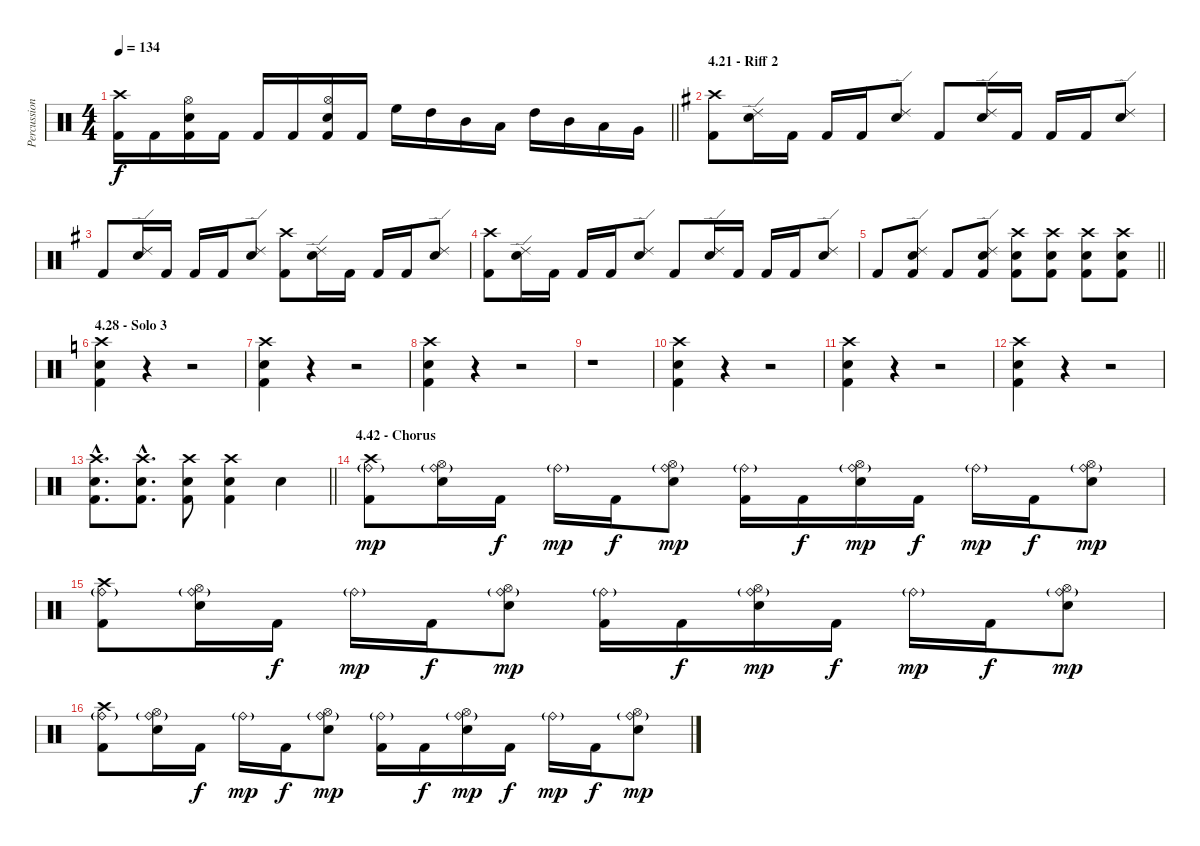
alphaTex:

\track ("Percussion" "Percussion") {instrument percussion}
\staff {score}
\articulation defaults
\ts (4 4)
\tempo 134
\clef neutral
\barLineRight lightlight
\ks aminor
("Crash high (hit)" "Kick (hit) 2").16{dy f} "Kick (hit) 2".16 ("Hi-Hat (open)" "Electric Snare (hit)" "Kick (hit) 2").16 "Kick (hit) 2".16 "Kick (hit) 2".16 "Kick (hit) 2".16 ("Hi-Hat (open)" "Electric Snare (hit)" "Kick (hit) 2").16 "Kick (hit) 2".16 "High Floor Tom (hit)".16 "High Tom (hit)".16 "Mid Tom (hit)".16 "Low Tom (hit)".16 "High Tom (hit)".16 "Mid Tom (hit)".16 "Low Tom (hit)".16 "Very Low Tom (hit)".16 |
\section ("" "4.21 - Riff 2")
\ks eminor
("Crash high (hit)" "Kick (hit) 2").8 ("Ride (edge) 2" "Electric Snare (hit)").16 "Kick (hit) 2".16 "Kick (hit) 2".16 "Kick (hit) 2".16 ("Ride (edge) 2" "Electric Snare (hit)").8 "Kick (hit) 2".8 ("Ride (edge) 2" "Electric Snare (hit)").16 "Kick (hit) 2".16 "Kick (hit) 2".16 "Kick (hit) 2".16 ("Ride (edge) 2" "Electric Snare (hit)").8 |
"Kick (hit) 2".8 ("Ride (edge) 2" "Electric Snare (hit)").16 "Kick (hit) 2".16 "Kick (hit) 2".16 "Kick (hit) 2".16 ("Ride (edge) 2" "Electric Snare (hit)").8 ("Crash high (hit)" "Kick (hit) 2").8 ("Ride (edge) 2" "Electric Snare (hit)").16 "Kick (hit) 2".16 "Kick (hit) 2".16 "Kick (hit) 2".16 ("Ride (edge) 2" "Electric Snare (hit)").8 |
("Crash high (hit)" "Kick (hit) 2").8 ("Ride (edge) 2" "Electric Snare (hit)").16 "Kick (hit) 2".16 "Kick (hit) 2".16 "Kick (hit) 2".16 ("Ride (edge) 2" "Electric Snare (hit)").8 "Kick (hit) 2".8 ("Ride (edge) 2" "Electric Snare (hit)").16 "Kick (hit) 2".16 "Kick (hit) 2".16 "Kick (hit) 2".16 ("Ride (edge) 2" "Electric Snare (hit)").8 |
\barLineRight lightlight "Kick (hit) 2".8
("Ride (edge) 2" "Electric Snare (hit)" "Kick (hit) 2").8 "Kick (hit) 2".8 ("Ride (edge) 2" "Electric Snare (hit)" "Kick (hit) 2").8 ("Crash high (hit)" "Electric Snare (hit)" "Kick (hit) 2").8 ("Crash high (hit)" "Electric Snare (hit)" "Kick (hit) 2").8 ("Crash high (hit)" "Electric Snare (hit)" "Kick (hit) 2").8 ("Crash high (hit)" "Electric Snare (hit)" "Kick (hit) 2").8 |
\section ("" "4.28 - Solo 3")
\ks aminor
("Crash high (hit)" "Electric Snare (hit)" "Kick (hit) 2").4 r.4 r.2 |
("Crash high (hit)" "Electric Snare (hit)" "Kick (hit) 2").4 r.4 r.2 |
("Crash high (hit)" "Electric Snare (hit)" "Kick (hit) 2").4 r.4 r.2 |
r.1 |
("Crash high (hit)" "Electric Snare (hit)" "Kick (hit) 2").4 r.4 r.2 |
("Crash high (hit)" "Electric Snare (hit)" "Kick (hit) 2").4 r.4 r.2 |
("Crash high (hit)" "Electric Snare (hit)" "Kick (hit) 2").4 r.4 r.2 |
\barLineRight lightlight
("Crash high (hit)"{hac} "Electric Snare (hit)"{hac} "Kick (hit) 2"{hac}).8{d} ("Crash high (hit)"{hac} "Electric Snare (hit)"{hac} "Kick (hit) 2"{hac}).8{d} ("Crash high (hit)" "Electric Snare (hit)" "Kick (hit) 2").8 ("Crash high (hit)" "Electric Snare (hit)" "Kick (hit) 2").4 "Electric Snare (hit)".4 |
\section ("" "4.42 - Chorus")
("Crash high (hit)" "Ride (bell)"{g} "Kick (hit) 2").8{dy mp} ("Hi-Hat (open)" "Ride (bell)"{g} "Electric Snare (hit)").16 "Kick (hit) 2".16{dy f} "Ride (bell)"{g}.16{dy mp} "Kick (hit) 2".16{dy f} ("Hi-Hat (open)" "Ride (bell)"{g} "Electric Snare (hit)").8{dy mp} ("Ride (bell)"{g} "Kick (hit) 2").16 "Kick (hit) 2".16{dy f} ("Hi-Hat (open)" "Ride (bell)"{g} "Electric Snare (hit)").16{dy mp} "Kick (hit) 2".16{dy f} "Ride (bell)"{g}.16{dy mp} "Kick (hit) 2".16{dy f} ("Hi-Hat (open)" "Ride (bell)"{g} "Electric Snare (hit)").8{dy mp} |
("Crash high (hit)" "Ride (bell)"{g} "Kick (hit) 2").8 ("Hi-Hat (open)" "Ride (bell)"{g} "Electric Snare (hit)").16 "Kick (hit) 2".16{dy f} "Ride (bell)"{g}.16{dy mp} "Kick (hit) 2".16{dy f} ("Hi-Hat (open)" "Ride (bell)"{g} "Electric Snare (hit)").8{dy mp} ("Ride (bell)"{g} "Kick (hit) 2").16 "Kick (hit) 2".16{dy f} ("Hi-Hat (open)" "Ride (bell)"{g} "Electric Snare (hit)").16{dy mp} "Kick (hit) 2".16{dy f} "Ride (bell)"{g}.16{dy mp} "Kick (hit) 2".16{dy f} ("Hi-Hat (open)" "Ride (bell)"{g} "Electric Snare (hit)").8{dy mp} |
("Crash high (hit)" "Ride (bell)"{g} "Kick (hit) 2").8 ("Hi-Hat (open)" "Ride (bell)"{g} "Electric Snare (hit)").16 "Kick (hit) 2".16{dy f} "Ride (bell)"{g}.16{dy mp} "Kick (hit) 2".16{dy f} ("Hi-Hat (open)" "Ride (bell)"{g} "Electric Snare (hit)").8{dy mp} ("Ride (bell)"{g} "Kick (hit) 2").16 "Kick (hit) 2".16{dy f} ("Hi-Hat (open)" "Ride (bell)"{g} "Electric Snare (hit)").16{dy mp} "Kick (hit) 2".16{dy f} "Ride (bell)"{g}.16{dy mp} "Kick (hit) 2".16{dy f} ("Hi-Hat (open)" "Ride (bell)"{g} "Electric Snare (hit)").8{dy mp}
